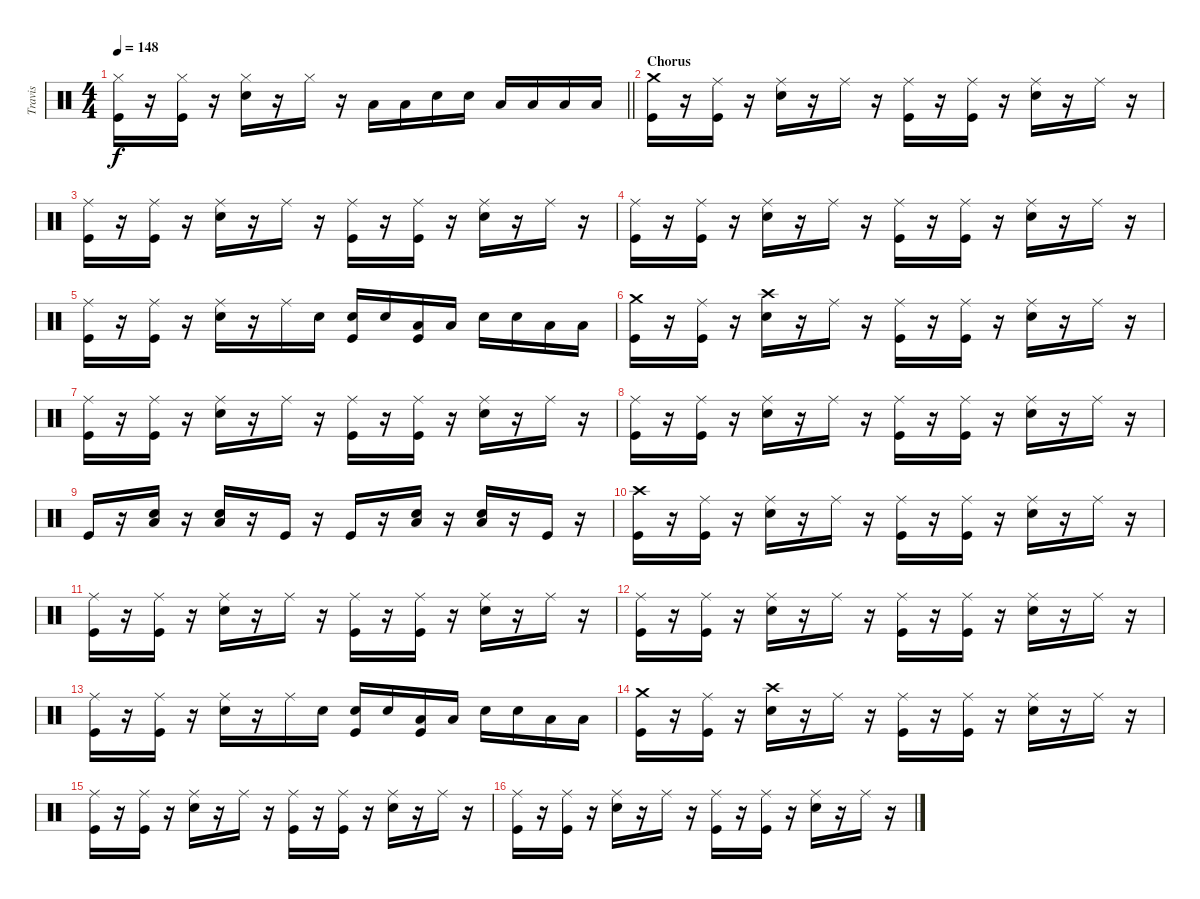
\track ("Travis" "Travis") {instrument percussion}
\staff {score}
\articulation defaults
\ts (4 4)
\tempo 148
\clef neutral
\barLineRight lightlight
\ks c
("Hi-Hat (closed)" "Kick (hit)").16{dy f} r.16 ("Hi-Hat (closed)" "Kick (hit)").16 r.16 ("Hi-Hat (closed)" "Snare (hit) 2").16 r.16 "Hi-Hat (closed)".16 r.16 "Low Tom (hit)".16 "Low Tom (hit)".16 "Snare (hit) 2".16 "Snare (hit) 2".16 "Low Tom (hit)".16 "Low Tom (hit)".16 "Low Floor Tom (hit)".16 "Low Floor Tom (hit)".16 |
\section ("" "Chorus")
("Crash medium (hit)" "Kick (hit)").16 r.16 ("Ride (middle)" "Kick (hit)").16 r.16 ("Ride (middle)" "Snare (hit) 2").16 r.16 "Ride (middle)".16 r.16 ("Ride (middle)" "Kick (hit)").16 r.16 ("Ride (middle)" "Kick (hit)").16 r.16 ("Ride (middle)" "Snare (hit) 2").16 r.16 "Ride (middle)".16 r.16 |
("Ride (middle)" "Kick (hit)").16 r.16 ("Ride (middle)" "Kick (hit)").16 r.16 ("Ride (middle)" "Snare (hit) 2").16 r.16 "Ride (middle)".16 r.16 ("Ride (middle)" "Kick (hit)").16 r.16 ("Ride (middle)" "Kick (hit)").16 r.16 ("Ride (middle)" "Snare (hit) 2").16 r.16 "Ride (middle)".16 r.16 |
("Ride (middle)" "Kick (hit)").16 r.16 ("Ride (middle)" "Kick (hit)").16 r.16 ("Ride (middle)" "Snare (hit) 2").16 r.16 "Ride (middle)".16 r.16 ("Ride (middle)" "Kick (hit)").16 r.16 ("Ride (middle)" "Kick (hit)").16 r.16 ("Ride (middle)" "Snare (hit) 2").16 r.16 "Ride (middle)".16 r.16 |
("Ride (middle)" "Kick (hit)").16 r.16 ("Ride (middle)" "Kick (hit)").16 r.16 ("Ride (middle)" "Snare (hit) 2").16 r.16 "Ride (middle)".16 "Snare (hit) 2".16 ("Snare (hit) 2" "Kick (hit)").16 "Snare (hit) 2".16 ("Low Tom (hit)" "Kick (hit)").16 "Low Tom (hit)".16 "Snare (hit) 2".16 "Snare (hit) 2".16 "Low Floor Tom (hit)".16 "Low Floor Tom (hit)".16 |
("Crash medium (hit)" "Kick (hit)").16 r.16 ("Ride (middle)" "Kick (hit)").16 r.16 ("Crash high (hit)" "Snare (hit) 2").16 r.16 "Ride (middle)".16 r.16 ("Ride (middle)" "Kick (hit)").16 r.16 ("Ride (middle)" "Kick (hit)").16 r.16 ("Ride (middle)" "Snare (hit) 2").16 r.16 "Ride (middle)".16 r.16 |
("Ride (middle)" "Kick (hit)").16 r.16 ("Ride (middle)" "Kick (hit)").16 r.16 ("Ride (middle)" "Snare (hit) 2").16 r.16 "Ride (middle)".16 r.16 ("Ride (middle)" "Kick (hit)").16 r.16 ("Ride (middle)" "Kick (hit)").16 r.16 ("Ride (middle)" "Snare (hit) 2").16 r.16 "Ride (middle)".16 r.16 |
("Ride (middle)" "Kick (hit)").16 r.16 ("Ride (middle)" "Kick (hit)").16 r.16 ("Ride (middle)" "Snare (hit) 2").16 r.16 "Ride (middle)".16 r.16 ("Ride (middle)" "Kick (hit)").16 r.16 ("Ride (middle)" "Kick (hit)").16 r.16 ("Ride (middle)" "Snare (hit) 2").16 r.16 "Ride (middle)".16 r.16 |
"Kick (hit)".16 r.16 ("Low Floor Tom (hit)" "Snare (hit) 2").16 r.16 ("Low Floor Tom (hit)" "Snare (hit) 2").16 r.16 "Kick (hit)".16 r.16 "Kick (hit)".16 r.16 ("Low Floor Tom (hit)" "Snare (hit) 2").16 r.16 ("Low Floor Tom (hit)" "Snare (hit) 2").16 r.16 "Kick (hit)".16 r.16 |
("Crash high (hit)" "Kick (hit)").16 r.16 ("Ride (middle)" "Kick (hit)").16 r.16 ("Ride (middle)" "Snare (hit) 2").16 r.16 "Ride (middle)".16 r.16 ("Ride (middle)" "Kick (hit)").16 r.16 ("Ride (middle)" "Kick (hit)").16 r.16 ("Ride (middle)" "Snare (hit) 2").16 r.16 "Ride (middle)".16 r.16 |
("Ride (middle)" "Kick (hit)").16 r.16 ("Ride (middle)" "Kick (hit)").16 r.16 ("Ride (middle)" "Snare (hit) 2").16 r.16 "Ride (middle)".16 r.16 ("Ride (middle)" "Kick (hit)").16 r.16 ("Ride (middle)" "Kick (hit)").16 r.16 ("Ride (middle)" "Snare (hit) 2").16 r.16 "Ride (middle)".16 r.16 |
("Ride (middle)" "Kick (hit)").16 r.16 ("Ride (middle)" "Kick (hit)").16 r.16 ("Ride (middle)" "Snare (hit) 2").16 r.16 "Ride (middle)".16 r.16 ("Ride (middle)" "Kick (hit)").16 r.16 ("Ride (middle)" "Kick (hit)").16 r.16 ("Ride (middle)" "Snare (hit) 2").16 r.16 "Ride (middle)".16 r.16 |
("Ride (middle)" "Kick (hit)").16 r.16 ("Ride (middle)" "Kick (hit)").16 r.16 ("Ride (middle)" "Snare (hit) 2").16 r.16 "Ride (middle)".16 "Snare (hit) 2".16 ("Snare (hit) 2" "Kick (hit)").16 "Snare (hit) 2".16 ("Low Tom (hit)" "Kick (hit)").16 "Low Tom (hit)".16 "Snare (hit) 2".16 "Snare (hit) 2".16 "Low Floor Tom (hit)".16 "Low Floor Tom (hit)".16 |
("Crash medium (hit)" "Kick (hit)").16 r.16 ("Ride (middle)" "Kick (hit)").16 r.16 ("Crash high (hit)" "Snare (hit) 2").16 r.16 "Ride (middle)".16 r.16 ("Ride (middle)" "Kick (hit)").16 r.16 ("Ride (middle)" "Kick (hit)").16 r.16 ("Ride (middle)" "Snare (hit) 2").16 r.16 "Ride (middle)".16 r.16 |
("Ride (middle)" "Kick (hit)").16 r.16 ("Ride (middle)" "Kick (hit)").16 r.16 ("Ride (middle)" "Snare (hit) 2").16 r.16 "Ride (middle)".16 r.16 ("Ride (middle)" "Kick (hit)").16 r.16 ("Ride (middle)" "Kick (hit)").16 r.16 ("Ride (middle)" "Snare (hit) 2").16 r.16 "Ride (middle)".16 r.16 |
("Ride (middle)" "Kick (hit)").16 r.16 ("Ride (middle)" "Kick (hit)").16 r.16 ("Ride (middle)" "Snare (hit) 2").16 r.16 "Ride (middle)".16 r.16 ("Ride (middle)" "Kick (hit)").16 r.16 ("Ride (middle)" "Kick (hit)").16 r.16 ("Ride (middle)" "Snare (hit) 2").16 r.16 "Ride (middle)".16 r.16
